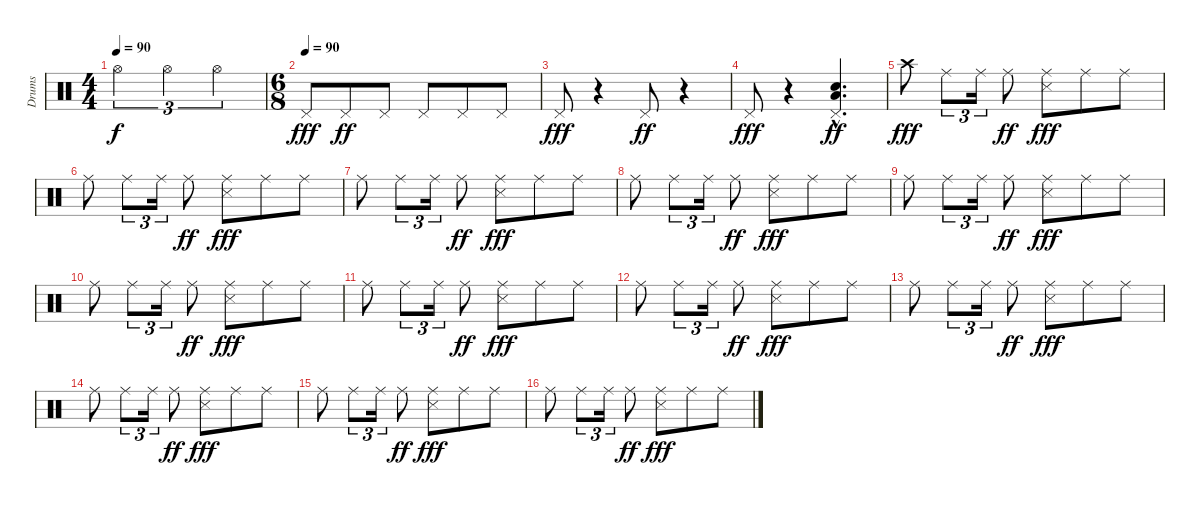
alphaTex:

\track ("Drums" "Drums") {instrument percussion}
\staff {score}
\articulation defaults
\ts (4 4)
\tempo 90
\clef neutral
\ks c "Hi-Hat (open)".2{tu (3 2) dy f} "Hi-Hat (open)".2{tu (3 2)} "Hi-Hat (open)".2{tu (3 2)}
|
\ts (6 8)
\tempo (90)
"Pedal Hi-Hat (hit)".8{dy fff} "Pedal Hi-Hat (hit)".8{dy ff} "Pedal Hi-Hat (hit)".8 "Pedal Hi-Hat (hit)".8 "Pedal Hi-Hat (hit)".8 "Pedal Hi-Hat (hit)".8 |
"Pedal Hi-Hat (hit)".8{dy fff} r.4 "Pedal Hi-Hat (hit)".8{dy ff} r.4 |
"Pedal Hi-Hat (hit)".8{dy fff} r.4 ("Pedal Hi-Hat (hit)" "Low Floor Tom (hit)" "Hand Clap (hit)"{hac}).4{d dy ff} |
"Crash high (hit)".8{dy fff} "Ride (middle)".8{tu (3 2)} "Ride (middle)".16{tu (3 2)} "Ride (middle)".8{dy ff} ("Ride (middle)" "Snare (side stick) 3").8{dy fff} "Ride (middle)".8 "Ride (middle)".8 |
"Ride (middle)".8 "Ride (middle)".8{tu (3 2)} "Ride (middle)".16{tu (3 2)} "Ride (middle)".8{dy ff} ("Ride (middle)" "Snare (side stick) 3").8{dy fff} "Ride (middle)".8 "Ride (middle)".8 |
"Ride (middle)".8 "Ride (middle)".8{tu (3 2)} "Ride (middle)".16{tu (3 2)} "Ride (middle)".8{dy ff} ("Ride (middle)" "Snare (side stick) 3").8{dy fff} "Ride (middle)".8 "Ride (middle)".8 |
"Ride (middle)".8 "Ride (middle)".8{tu (3 2)} "Ride (middle)".16{tu (3 2)} "Ride (middle)".8{dy ff} ("Ride (middle)" "Snare (side stick) 3").8{dy fff} "Ride (middle)".8 "Ride (middle)".8 |
"Ride (middle)".8 "Ride (middle)".8{tu (3 2)} "Ride (middle)".16{tu (3 2)} "Ride (middle)".8{dy ff} ("Ride (middle)" "Snare (side stick) 3").8{dy fff} "Ride (middle)".8 "Ride (middle)".8 |
"Ride (middle)".8 "Ride (middle)".8{tu (3 2)} "Ride (middle)".16{tu (3 2)} "Ride (middle)".8{dy ff} ("Ride (middle)" "Snare (side stick) 3").8{dy fff} "Ride (middle)".8 "Ride (middle)".8 |
"Ride (middle)".8 "Ride (middle)".8{tu (3 2)} "Ride (middle)".16{tu (3 2)} "Ride (middle)".8{dy ff} ("Ride (middle)" "Snare (side stick) 3").8{dy fff} "Ride (middle)".8 "Ride (middle)".8 |
"Ride (middle)".8 "Ride (middle)".8{tu (3 2)} "Ride (middle)".16{tu (3 2)} "Ride (middle)".8{dy ff} ("Ride (middle)" "Snare (side stick) 3").8{dy fff} "Ride (middle)".8 "Ride (middle)".8 |
"Ride (middle)".8 "Ride (middle)".8{tu (3 2)} "Ride (middle)".16{tu (3 2)} "Ride (middle)".8{dy ff} ("Ride (middle)" "Snare (side stick) 3").8{dy fff} "Ride (middle)".8 "Ride (middle)".8 |
"Ride (middle)".8 "Ride (middle)".8{tu (3 2)} "Ride (middle)".16{tu (3 2)} "Ride (middle)".8{dy ff} ("Ride (middle)" "Snare (side stick) 3").8{dy fff} "Ride (middle)".8 "Ride (middle)".8 |
"Ride (middle)".8 "Ride (middle)".8{tu (3 2)} "Ride (middle)".16{tu (3 2)} "Ride (middle)".8{dy ff} ("Ride (middle)" "Snare (side stick) 3").8{dy fff} "Ride (middle)".8 "Ride (middle)".8 |
"Ride (middle)".8 "Ride (middle)".8{tu (3 2)} "Ride (middle)".16{tu (3 2)} "Ride (middle)".8{dy ff} ("Ride (middle)" "Snare (side stick) 3").8{dy fff} "Ride (middle)".8 "Ride (middle)".8
